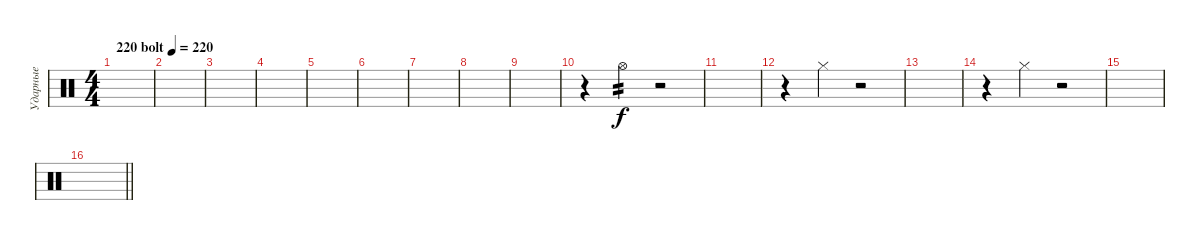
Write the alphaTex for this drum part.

\track ("Ударные" "Ударные") {instrument percussion}
\staff {score}
\articulation defaults
\ts (4 4)
\tempo (220 "220 bolt")
\clef neutral
\ks c
|
|
|
|
|
|
|
|
|
r.4 "Hi-Hat (open)".4{tp 2} r.2 |
|
r.4 "Hi-Hat (closed)".4 r.2 |
|
r.4 "Hi-Hat (closed)".4 r.2 |
|
\barLineRight lightlight
